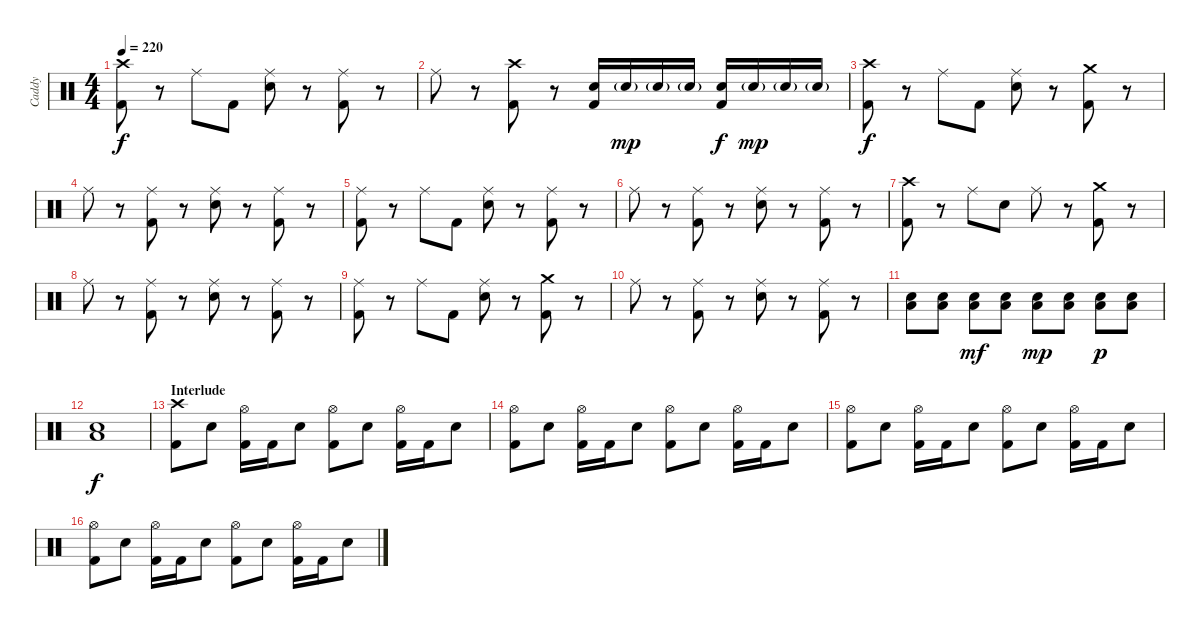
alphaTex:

\track ("Caddy" "Caddy") {instrument percussion}
\staff {score}
\articulation defaults
\ts (4 4)
\tempo 220
\clef neutral
\ks c
("Crash high (hit)" "Kick (hit) 2").8{dy f} r.8 "Ride (middle)".8 "Kick (hit) 2".8 ("Ride (middle)" "Electric Snare (hit)").8 r.8 ("Ride (middle)" "Kick (hit) 2").8 r.8 |
"Ride (middle)".8 r.8 ("Crash high (hit)" "Kick (hit) 2").8 r.8 ("Electric Snare (hit)" "Kick (hit) 2").16 "Electric Snare (hit)"{g}.16{dy mp} "Electric Snare (hit)"{g}.16 "Electric Snare (hit)"{g}.16 ("Electric Snare (hit)" "Kick (hit) 2").16{dy f} "Electric Snare (hit)"{g}.16{dy mp} "Electric Snare (hit)"{g}.16 "Electric Snare (hit)"{g}.16 |
("Crash high (hit)" "Kick (hit) 2").8{dy f} r.8 "Ride (middle)".8 "Kick (hit) 2".8 ("Ride (middle)" "Electric Snare (hit)").8 r.8 ("Crash medium (hit)" "Kick (hit) 2").8 r.8 |
"Ride (middle)".8 r.8 ("Ride (middle)" "Kick (hit) 2").8 r.8 ("Ride (middle)" "Electric Snare (hit)").8 r.8 ("Ride (middle)" "Kick (hit) 2").8 r.8 |
("Ride (middle)" "Kick (hit) 2").8 r.8 "Ride (middle)".8 "Kick (hit) 2".8 ("Ride (middle)" "Electric Snare (hit)").8 r.8 ("Ride (middle)" "Kick (hit) 2").8 r.8 |
"Ride (middle)".8 r.8 ("Ride (middle)" "Kick (hit) 2").8 r.8 ("Ride (middle)" "Electric Snare (hit)").8 r.8 ("Ride (middle)" "Kick (hit) 2").8 r.8 |
("Crash high (hit)" "Kick (hit) 2").8 r.8 "Ride (middle)".8 "Electric Snare (hit)".8 "Ride (middle)".8 r.8 ("Crash medium (hit)" "Kick (hit) 2").8 r.8 |
"Ride (middle)".8 r.8 ("Ride (middle)" "Kick (hit) 2").8 r.8 ("Ride (middle)" "Electric Snare (hit)").8 r.8 ("Ride (middle)" "Kick (hit) 2").8 r.8 |
("Ride (middle)" "Kick (hit) 2").8 r.8 "Ride (middle)".8 "Kick (hit) 2".8 ("Ride (middle)" "Electric Snare (hit)").8 r.8 ("Crash medium (hit)" "Kick (hit) 2").8 r.8 |
"Ride (middle)".8 r.8 ("Ride (middle)" "Kick (hit) 2").8 r.8 ("Ride (middle)" "Electric Snare (hit)").8 r.8 ("Ride (middle)" "Kick (hit) 2").8 r.8 |
("Electric Snare (hit)" "Low Floor Tom (hit)").8 ("Electric Snare (hit)" "Low Floor Tom (hit)").8 ("Electric Snare (hit)" "Low Floor Tom (hit)").8{dy mf} ("Electric Snare (hit)" "Low Floor Tom (hit)").8 ("Electric Snare (hit)" "Low Floor Tom (hit)").8{dy mp} ("Electric Snare (hit)" "Low Floor Tom (hit)").8 ("Electric Snare (hit)" "Low Floor Tom (hit)").8{dy p} ("Electric Snare (hit)" "Low Floor Tom (hit)").8 |
("Electric Snare (hit)" "Low Floor Tom (hit)").1{dy f} |
\section ("" "Interlude")
("Crash high (hit)" "Kick (hit) 2").8 "Electric Snare (hit)".8 ("Hi-Hat (open)" "Kick (hit) 2").16 "Kick (hit) 2".16 "Electric Snare (hit)".8 ("Hi-Hat (open)" "Kick (hit) 2").8 "Electric Snare (hit)".8 ("Hi-Hat (open)" "Kick (hit) 2").16 "Kick (hit) 2".16 "Electric Snare (hit)".8 |
("Hi-Hat (open)" "Kick (hit) 2").8 "Electric Snare (hit)".8 ("Hi-Hat (open)" "Kick (hit) 2").16 "Kick (hit) 2".16 "Electric Snare (hit)".8 ("Hi-Hat (open)" "Kick (hit) 2").8 "Electric Snare (hit)".8 ("Hi-Hat (open)" "Kick (hit) 2").16 "Kick (hit) 2".16 "Electric Snare (hit)".8 |
("Hi-Hat (open)" "Kick (hit) 2").8 "Electric Snare (hit)".8 ("Hi-Hat (open)" "Kick (hit) 2").16 "Kick (hit) 2".16 "Electric Snare (hit)".8 ("Hi-Hat (open)" "Kick (hit) 2").8 "Electric Snare (hit)".8 ("Hi-Hat (open)" "Kick (hit) 2").16 "Kick (hit) 2".16 "Electric Snare (hit)".8 |
("Hi-Hat (open)" "Kick (hit) 2").8 "Electric Snare (hit)".8 ("Hi-Hat (open)" "Kick (hit) 2").16 "Kick (hit) 2".16 "Electric Snare (hit)".8 ("Hi-Hat (open)" "Kick (hit) 2").8 "Electric Snare (hit)".8 ("Hi-Hat (open)" "Kick (hit) 2").16 "Kick (hit) 2".16 "Electric Snare (hit)".8
